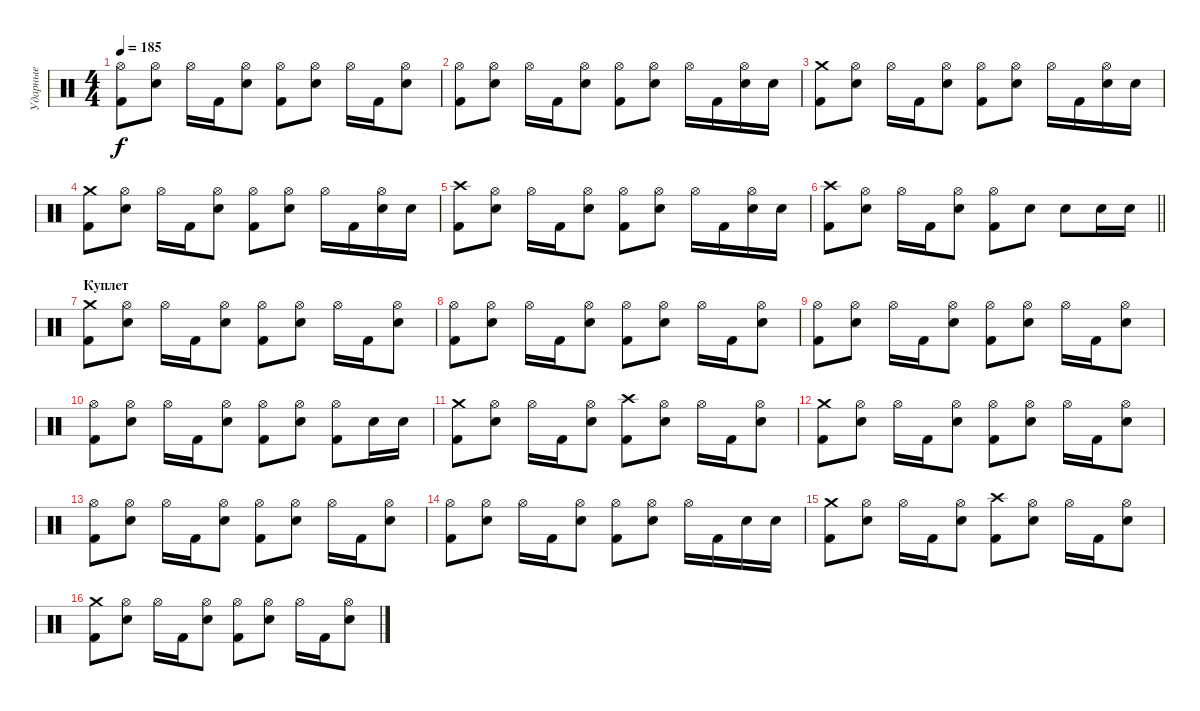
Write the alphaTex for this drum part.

\track ("Ударные" "Ударные") {instrument percussion}
\staff {score}
\articulation defaults
\ts (4 4)
\tempo 185
\clef neutral
\ks c
("Hi-Hat (open)" "Kick (hit) 2").8{dy f} ("Hi-Hat (open)" "Electric Snare (hit)").8 "Hi-Hat (open)".16 "Kick (hit) 2".16 ("Hi-Hat (open)" "Electric Snare (hit)").8 ("Hi-Hat (open)" "Kick (hit) 2").8 ("Hi-Hat (open)" "Electric Snare (hit)").8 "Hi-Hat (open)".16 "Kick (hit) 2".16 ("Hi-Hat (open)" "Electric Snare (hit)").8 |
("Hi-Hat (open)" "Kick (hit) 2").8 ("Hi-Hat (open)" "Electric Snare (hit)").8 "Hi-Hat (open)".16 "Kick (hit) 2".16 ("Hi-Hat (open)" "Electric Snare (hit)").8 ("Hi-Hat (open)" "Kick (hit) 2").8 ("Hi-Hat (open)" "Electric Snare (hit)").8 "Hi-Hat (open)".16 "Kick (hit) 2".16 ("Hi-Hat (open)" "Electric Snare (hit)").16 "Electric Snare (hit)".16 |
("Crash medium (hit)" "Kick (hit) 2").8 ("Hi-Hat (open)" "Electric Snare (hit)").8 "Hi-Hat (open)".16 "Kick (hit) 2".16 ("Hi-Hat (open)" "Electric Snare (hit)").8 ("Hi-Hat (open)" "Kick (hit) 2").8 ("Hi-Hat (open)" "Electric Snare (hit)").8 "Hi-Hat (open)".16 "Kick (hit) 2".16 ("Hi-Hat (open)" "Electric Snare (hit)").16 "Electric Snare (hit)".16 |
("Crash medium (hit)" "Kick (hit) 2").8 ("Hi-Hat (open)" "Electric Snare (hit)").8 "Hi-Hat (open)".16 "Kick (hit) 2".16 ("Hi-Hat (open)" "Electric Snare (hit)").8 ("Hi-Hat (open)" "Kick (hit) 2").8 ("Hi-Hat (open)" "Electric Snare (hit)").8 "Hi-Hat (open)".16 "Kick (hit) 2".16 ("Hi-Hat (open)" "Electric Snare (hit)").16 "Electric Snare (hit)".16 |
("Crash high (hit)" "Kick (hit) 2").8 ("Hi-Hat (open)" "Electric Snare (hit)").8 "Hi-Hat (open)".16 "Kick (hit) 2".16 ("Hi-Hat (open)" "Electric Snare (hit)").8 ("Hi-Hat (open)" "Kick (hit) 2").8 ("Hi-Hat (open)" "Electric Snare (hit)").8 "Hi-Hat (open)".16 "Kick (hit) 2".16 ("Hi-Hat (open)" "Electric Snare (hit)").16 "Electric Snare (hit)".16 |
\barLineRight lightlight
("Crash high (hit)" "Kick (hit) 2").8 ("Hi-Hat (open)" "Electric Snare (hit)").8 "Hi-Hat (open)".16 "Kick (hit) 2".16 ("Hi-Hat (open)" "Electric Snare (hit)").8 ("Hi-Hat (open)" "Kick (hit) 2").8 "Electric Snare (hit)".8 "Electric Snare (hit)".8 "Electric Snare (hit)".16 "Electric Snare (hit)".16 |
\section ("" "Куплет")
("Crash medium (hit)" "Kick (hit) 2").8 ("Hi-Hat (open)" "Electric Snare (hit)").8 "Hi-Hat (open)".16 "Kick (hit) 2".16 ("Hi-Hat (open)" "Electric Snare (hit)").8 ("Hi-Hat (open)" "Kick (hit) 2").8 ("Hi-Hat (open)" "Electric Snare (hit)").8 "Hi-Hat (open)".16 "Kick (hit) 2".16 ("Hi-Hat (open)" "Electric Snare (hit)").8 |
("Hi-Hat (open)" "Kick (hit) 2").8 ("Hi-Hat (open)" "Electric Snare (hit)").8 "Hi-Hat (open)".16 "Kick (hit) 2".16 ("Hi-Hat (open)" "Electric Snare (hit)").8 ("Hi-Hat (open)" "Kick (hit) 2").8 ("Hi-Hat (open)" "Electric Snare (hit)").8 "Hi-Hat (open)".16 "Kick (hit) 2".16 ("Hi-Hat (open)" "Electric Snare (hit)").8 |
("Hi-Hat (open)" "Kick (hit) 2").8 ("Hi-Hat (open)" "Electric Snare (hit)").8 "Hi-Hat (open)".16 "Kick (hit) 2".16 ("Hi-Hat (open)" "Electric Snare (hit)").8 ("Hi-Hat (open)" "Kick (hit) 2").8 ("Hi-Hat (open)" "Electric Snare (hit)").8 "Hi-Hat (open)".16 "Kick (hit) 2".16 ("Hi-Hat (open)" "Electric Snare (hit)").8 |
("Hi-Hat (open)" "Kick (hit) 2").8 ("Hi-Hat (open)" "Electric Snare (hit)").8 "Hi-Hat (open)".16 "Kick (hit) 2".16 ("Hi-Hat (open)" "Electric Snare (hit)").8 ("Hi-Hat (open)" "Kick (hit) 2").8 ("Hi-Hat (open)" "Electric Snare (hit)").8 ("Hi-Hat (open)" "Kick (hit) 2").8 "Electric Snare (hit)".16 "Electric Snare (hit)".16 |
("Crash medium (hit)" "Kick (hit) 2").8 ("Hi-Hat (open)" "Electric Snare (hit)").8 "Hi-Hat (open)".16 "Kick (hit) 2".16 ("Hi-Hat (open)" "Electric Snare (hit)").8 ("Crash high (hit)" "Kick (hit) 2").8 ("Hi-Hat (open)" "Electric Snare (hit)").8 "Hi-Hat (open)".16 "Kick (hit) 2".16 ("Hi-Hat (open)" "Electric Snare (hit)").8 |
("Crash medium (hit)" "Kick (hit) 2").8 ("Hi-Hat (open)" "Electric Snare (hit)").8 "Hi-Hat (open)".16 "Kick (hit) 2".16 ("Hi-Hat (open)" "Electric Snare (hit)").8 ("Hi-Hat (open)" "Kick (hit) 2").8 ("Hi-Hat (open)" "Electric Snare (hit)").8 "Hi-Hat (open)".16 "Kick (hit) 2".16 ("Hi-Hat (open)" "Electric Snare (hit)").8 |
("Hi-Hat (open)" "Kick (hit) 2").8 ("Hi-Hat (open)" "Electric Snare (hit)").8 "Hi-Hat (open)".16 "Kick (hit) 2".16 ("Hi-Hat (open)" "Electric Snare (hit)").8 ("Hi-Hat (open)" "Kick (hit) 2").8 ("Hi-Hat (open)" "Electric Snare (hit)").8 "Hi-Hat (open)".16 "Kick (hit) 2".16 ("Hi-Hat (open)" "Electric Snare (hit)").8 |
("Hi-Hat (open)" "Kick (hit) 2").8 ("Hi-Hat (open)" "Electric Snare (hit)").8 "Hi-Hat (open)".16 "Kick (hit) 2".16 ("Hi-Hat (open)" "Electric Snare (hit)").8 ("Hi-Hat (open)" "Kick (hit) 2").8 ("Hi-Hat (open)" "Electric Snare (hit)").8 "Hi-Hat (open)".16 "Kick (hit) 2".16 "Electric Snare (hit)".16 "Electric Snare (hit)".16 |
("Crash medium (hit)" "Kick (hit) 2").8 ("Hi-Hat (open)" "Electric Snare (hit)").8 "Hi-Hat (open)".16 "Kick (hit) 2".16 ("Hi-Hat (open)" "Electric Snare (hit)").8 ("Crash high (hit)" "Kick (hit) 2").8 ("Hi-Hat (open)" "Electric Snare (hit)").8 "Hi-Hat (open)".16 "Kick (hit) 2".16 ("Hi-Hat (open)" "Electric Snare (hit)").8 |
("Crash medium (hit)" "Kick (hit) 2").8 ("Hi-Hat (open)" "Electric Snare (hit)").8 "Hi-Hat (open)".16 "Kick (hit) 2".16 ("Hi-Hat (open)" "Electric Snare (hit)").8 ("Hi-Hat (open)" "Kick (hit) 2").8 ("Hi-Hat (open)" "Electric Snare (hit)").8 "Hi-Hat (open)".16 "Kick (hit) 2".16 ("Hi-Hat (open)" "Electric Snare (hit)").8
